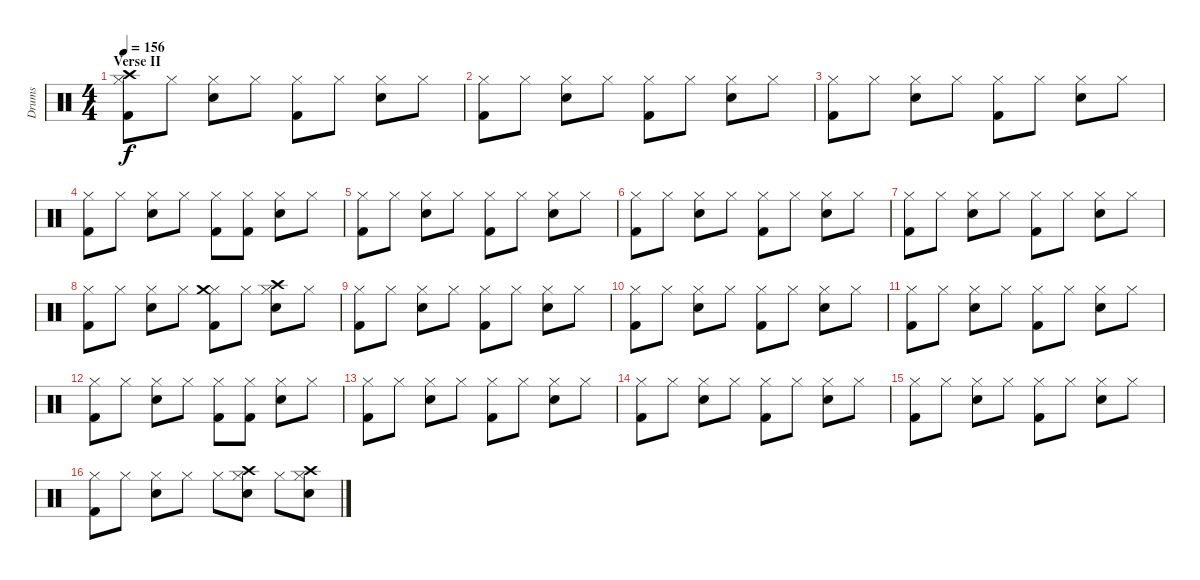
\track ("Drums" "Drums") {instrument percussion}
\staff {score}
\articulation defaults
\ts (4 4)
\section ("" "Verse II")
\tempo 156
\clef neutral
\ks c
("Hi-Hat (closed)" "Kick (hit) 2" "Crash high (hit)").8{dy f} "Hi-Hat (closed)".8 ("Hi-Hat (closed)" "Electric Snare (hit)").8 "Hi-Hat (closed)".8 ("Hi-Hat (closed)" "Kick (hit) 2").8 "Hi-Hat (closed)".8 ("Hi-Hat (closed)" "Electric Snare (hit)").8 "Hi-Hat (closed)".8 |
("Hi-Hat (closed)" "Kick (hit) 2").8 "Hi-Hat (closed)".8 ("Hi-Hat (closed)" "Electric Snare (hit)").8 "Hi-Hat (closed)".8 ("Hi-Hat (closed)" "Kick (hit) 2").8 "Hi-Hat (closed)".8 ("Hi-Hat (closed)" "Electric Snare (hit)").8 "Hi-Hat (closed)".8 |
("Hi-Hat (closed)" "Kick (hit) 2").8 "Hi-Hat (closed)".8 ("Hi-Hat (closed)" "Electric Snare (hit)").8 "Hi-Hat (closed)".8 ("Hi-Hat (closed)" "Kick (hit) 2").8 "Hi-Hat (closed)".8 ("Hi-Hat (closed)" "Electric Snare (hit)").8 "Hi-Hat (closed)".8 |
("Hi-Hat (closed)" "Kick (hit) 2").8 "Hi-Hat (closed)".8 ("Hi-Hat (closed)" "Electric Snare (hit)").8 "Hi-Hat (closed)".8 ("Hi-Hat (closed)" "Kick (hit) 2").8 ("Hi-Hat (closed)" "Kick (hit) 2").8 ("Hi-Hat (closed)" "Electric Snare (hit)").8 "Hi-Hat (closed)".8 |
("Hi-Hat (closed)" "Kick (hit) 2").8 "Hi-Hat (closed)".8 ("Hi-Hat (closed)" "Electric Snare (hit)").8 "Hi-Hat (closed)".8 ("Hi-Hat (closed)" "Kick (hit) 2").8 "Hi-Hat (closed)".8 ("Hi-Hat (closed)" "Electric Snare (hit)").8 "Hi-Hat (closed)".8 |
("Hi-Hat (closed)" "Kick (hit) 2").8 "Hi-Hat (closed)".8 ("Hi-Hat (closed)" "Electric Snare (hit)").8 "Hi-Hat (closed)".8 ("Hi-Hat (closed)" "Kick (hit) 2").8 "Hi-Hat (closed)".8 ("Hi-Hat (closed)" "Electric Snare (hit)").8 "Hi-Hat (closed)".8 |
("Hi-Hat (closed)" "Kick (hit) 2").8 "Hi-Hat (closed)".8 ("Hi-Hat (closed)" "Electric Snare (hit)").8 "Hi-Hat (closed)".8 ("Hi-Hat (closed)" "Kick (hit) 2").8 "Hi-Hat (closed)".8 ("Hi-Hat (closed)" "Electric Snare (hit)").8 "Hi-Hat (closed)".8 |
("Hi-Hat (closed)" "Kick (hit) 2").8 "Hi-Hat (closed)".8 ("Hi-Hat (closed)" "Electric Snare (hit)").8 "Hi-Hat (closed)".8 ("Hi-Hat (closed)" "Kick (hit) 2" "Crash medium (hit)").8 "Hi-Hat (closed)".8 ("Hi-Hat (closed)" "Electric Snare (hit)" "Crash high (hit)").8 "Hi-Hat (closed)".8 |
("Hi-Hat (closed)" "Kick (hit) 2").8 "Hi-Hat (closed)".8 ("Hi-Hat (closed)" "Electric Snare (hit)").8 "Hi-Hat (closed)".8 ("Hi-Hat (closed)" "Kick (hit) 2").8 "Hi-Hat (closed)".8 ("Hi-Hat (closed)" "Electric Snare (hit)").8 "Hi-Hat (closed)".8 |
("Hi-Hat (closed)" "Kick (hit) 2").8 "Hi-Hat (closed)".8 ("Hi-Hat (closed)" "Electric Snare (hit)").8 "Hi-Hat (closed)".8 ("Hi-Hat (closed)" "Kick (hit) 2").8 "Hi-Hat (closed)".8 ("Hi-Hat (closed)" "Electric Snare (hit)").8 "Hi-Hat (closed)".8 |
("Hi-Hat (closed)" "Kick (hit) 2").8 "Hi-Hat (closed)".8 ("Hi-Hat (closed)" "Electric Snare (hit)").8 "Hi-Hat (closed)".8 ("Hi-Hat (closed)" "Kick (hit) 2").8 "Hi-Hat (closed)".8 ("Hi-Hat (closed)" "Electric Snare (hit)").8 "Hi-Hat (closed)".8 |
("Hi-Hat (closed)" "Kick (hit) 2").8 "Hi-Hat (closed)".8 ("Hi-Hat (closed)" "Electric Snare (hit)").8 "Hi-Hat (closed)".8 ("Hi-Hat (closed)" "Kick (hit) 2").8 ("Hi-Hat (closed)" "Kick (hit) 2").8 ("Hi-Hat (closed)" "Electric Snare (hit)").8 "Hi-Hat (closed)".8 |
("Hi-Hat (closed)" "Kick (hit) 2").8 "Hi-Hat (closed)".8 ("Hi-Hat (closed)" "Electric Snare (hit)").8 "Hi-Hat (closed)".8 ("Hi-Hat (closed)" "Kick (hit) 2").8 "Hi-Hat (closed)".8 ("Hi-Hat (closed)" "Electric Snare (hit)").8 "Hi-Hat (closed)".8 |
("Hi-Hat (closed)" "Kick (hit) 2").8 "Hi-Hat (closed)".8 ("Hi-Hat (closed)" "Electric Snare (hit)").8 "Hi-Hat (closed)".8 ("Hi-Hat (closed)" "Kick (hit) 2").8 "Hi-Hat (closed)".8 ("Hi-Hat (closed)" "Electric Snare (hit)").8 "Hi-Hat (closed)".8 |
("Hi-Hat (closed)" "Kick (hit) 2").8 "Hi-Hat (closed)".8 ("Hi-Hat (closed)" "Electric Snare (hit)").8 "Hi-Hat (closed)".8 ("Hi-Hat (closed)" "Kick (hit) 2").8 "Hi-Hat (closed)".8 ("Hi-Hat (closed)" "Electric Snare (hit)").8 "Hi-Hat (closed)".8 |
("Hi-Hat (closed)" "Kick (hit) 2").8 "Hi-Hat (closed)".8 ("Hi-Hat (closed)" "Electric Snare (hit)").8 "Hi-Hat (closed)".8 "Hi-Hat (closed)".8 ("Hi-Hat (closed)" "Electric Snare (hit)" "Crash high (hit)").8 "Hi-Hat (closed)".8 ("Hi-Hat (closed)" "Electric Snare (hit)" "Crash high (hit)").8
